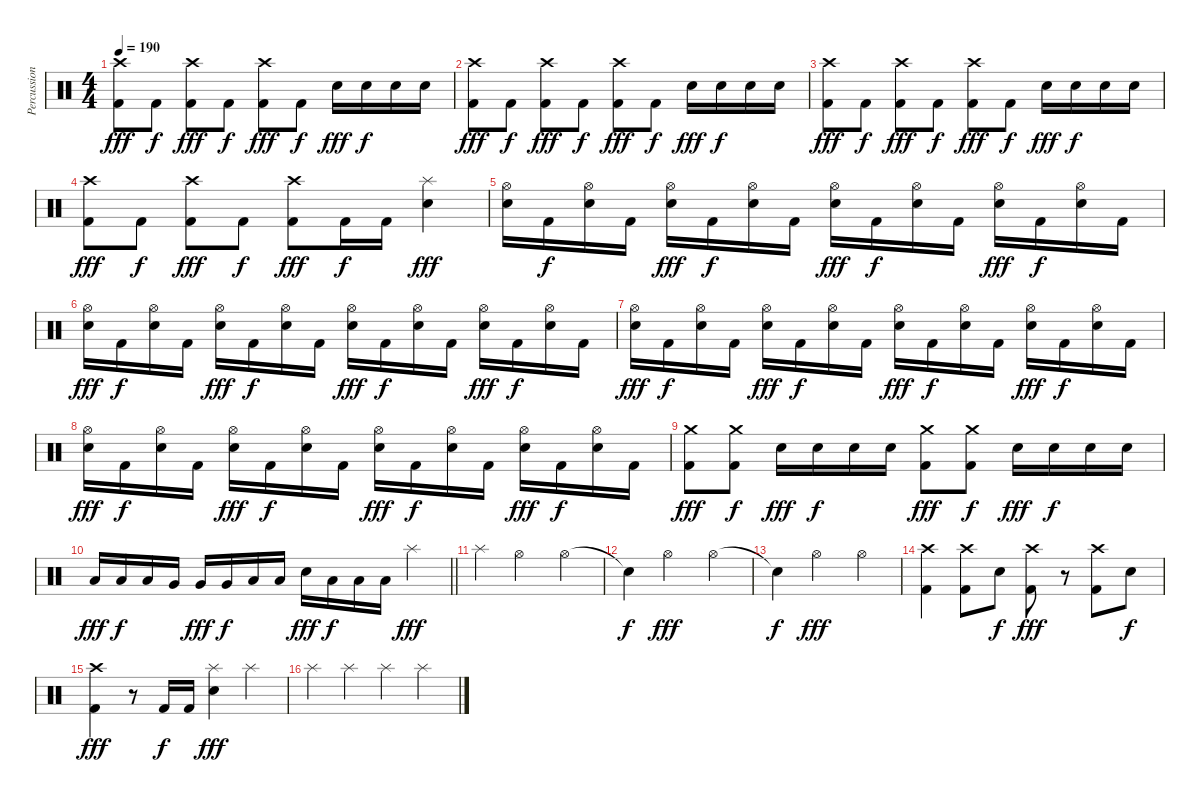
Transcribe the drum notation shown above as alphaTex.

\track ("Percussions" "Percussion") {instrument percussion}
\staff {score}
\articulation defaults
\ts (4 4)
\tempo 190
\clef neutral
\ks c
("Crash high (hit)" "Kick (hit) 2").8{dy fff} "Kick (hit) 2".8{dy f} ("Crash high (hit)" "Kick (hit) 2").8{dy fff} "Kick (hit) 2".8{dy f} ("Crash high (hit)" "Kick (hit) 2").8{dy fff} "Kick (hit) 2".8{dy f} "Snare (hit) 2".16{dy fff} "Snare (hit) 2".16{dy f} "Snare (hit) 2".16 "Snare (hit) 2".16 |
("Crash high (hit)" "Kick (hit) 2").8{dy fff} "Kick (hit) 2".8{dy f} ("Crash high (hit)" "Kick (hit) 2").8{dy fff} "Kick (hit) 2".8{dy f} ("Crash high (hit)" "Kick (hit) 2").8{dy fff} "Kick (hit) 2".8{dy f} "Snare (hit) 2".16{dy fff} "Snare (hit) 2".16{dy f} "Snare (hit) 2".16 "Snare (hit) 2".16 |
("Crash high (hit)" "Kick (hit) 2").8{dy fff} "Kick (hit) 2".8{dy f} ("Crash high (hit)" "Kick (hit) 2").8{dy fff} "Kick (hit) 2".8{dy f} ("Crash high (hit)" "Kick (hit) 2").8{dy fff} "Kick (hit) 2".8{dy f} "Snare (hit) 2".16{dy fff} "Snare (hit) 2".16{dy f} "Snare (hit) 2".16 "Snare (hit) 2".16 |
("Crash high (hit)" "Kick (hit) 2").8{dy fff} "Kick (hit) 2".8{dy f} ("Crash high (hit)" "Kick (hit) 2").8{dy fff} "Kick (hit) 2".8{dy f} ("Crash high (hit)" "Kick (hit) 2").8{dy fff} "Kick (hit) 2".16{dy f} "Kick (hit) 2".16 ("Splash (hit)" "Snare (hit) 2").4{dy fff} |
("Hi-Hat (open)" "Snare (hit) 2").16 "Kick (hit) 2".16{dy f} ("Hi-Hat (open)" "Snare (hit) 2").16 "Kick (hit) 2".16 ("Hi-Hat (open)" "Snare (hit) 2").16{dy fff} "Kick (hit) 2".16{dy f} ("Hi-Hat (open)" "Snare (hit) 2").16 "Kick (hit) 2".16 ("Hi-Hat (open)" "Snare (hit) 2").16{dy fff} "Kick (hit) 2".16{dy f} ("Hi-Hat (open)" "Snare (hit) 2").16 "Kick (hit) 2".16 ("Hi-Hat (open)" "Snare (hit) 2").16{dy fff} "Kick (hit) 2".16{dy f} ("Hi-Hat (open)" "Snare (hit) 2").16 "Kick (hit) 2".16 |
("Hi-Hat (open)" "Snare (hit) 2").16{dy fff} "Kick (hit) 2".16{dy f} ("Hi-Hat (open)" "Snare (hit) 2").16 "Kick (hit) 2".16 ("Hi-Hat (open)" "Snare (hit) 2").16{dy fff} "Kick (hit) 2".16{dy f} ("Hi-Hat (open)" "Snare (hit) 2").16 "Kick (hit) 2".16 ("Hi-Hat (open)" "Snare (hit) 2").16{dy fff} "Kick (hit) 2".16{dy f} ("Hi-Hat (open)" "Snare (hit) 2").16 "Kick (hit) 2".16 ("Hi-Hat (open)" "Snare (hit) 2").16{dy fff} "Kick (hit) 2".16{dy f} ("Hi-Hat (open)" "Snare (hit) 2").16 "Kick (hit) 2".16 |
("Hi-Hat (open)" "Snare (hit) 2").16{dy fff} "Kick (hit) 2".16{dy f} ("Hi-Hat (open)" "Snare (hit) 2").16 "Kick (hit) 2".16 ("Hi-Hat (open)" "Snare (hit) 2").16{dy fff} "Kick (hit) 2".16{dy f} ("Hi-Hat (open)" "Snare (hit) 2").16 "Kick (hit) 2".16 ("Hi-Hat (open)" "Snare (hit) 2").16{dy fff} "Kick (hit) 2".16{dy f} ("Hi-Hat (open)" "Snare (hit) 2").16 "Kick (hit) 2".16 ("Hi-Hat (open)" "Snare (hit) 2").16{dy fff} "Kick (hit) 2".16{dy f} ("Hi-Hat (open)" "Snare (hit) 2").16 "Kick (hit) 2".16 |
("Hi-Hat (open)" "Snare (hit) 2").16{dy fff} "Kick (hit) 2".16{dy f} ("Hi-Hat (open)" "Snare (hit) 2").16 "Kick (hit) 2".16 ("Hi-Hat (open)" "Snare (hit) 2").16{dy fff} "Kick (hit) 2".16{dy f} ("Hi-Hat (open)" "Snare (hit) 2").16 "Kick (hit) 2".16 ("Hi-Hat (open)" "Snare (hit) 2").16{dy fff} "Kick (hit) 2".16{dy f} ("Hi-Hat (open)" "Snare (hit) 2").16 "Kick (hit) 2".16 ("Hi-Hat (open)" "Snare (hit) 2").16{dy fff} "Kick (hit) 2".16{dy f} ("Hi-Hat (open)" "Snare (hit) 2").16 "Kick (hit) 2".16 |
("Crash medium (hit)" "Kick (hit) 2").8{dy fff} ("Crash medium (hit)" "Kick (hit) 2").8{dy f} "Snare (hit) 2".16{dy fff} "Snare (hit) 2".16{dy f} "Snare (hit) 2".16 "Snare (hit) 2".16 ("Crash medium (hit)" "Kick (hit) 2").8{dy fff} ("Crash medium (hit)" "Kick (hit) 2").8{dy f} "Snare (hit) 2".16{dy fff} "Snare (hit) 2".16{dy f} "Snare (hit) 2".16 "Snare (hit) 2".16 |
\barLineRight lightlight "Low Tom (hit)".16{dy fff} "Low Tom (hit)".16{dy f} "Low Tom (hit)".16 "Very Low Tom (hit)".16 "Very Low Tom (hit)".16{dy fff} "Very Low Tom (hit)".16{dy f} "Low Floor Tom (hit)".16 "Low Floor Tom (hit)".16 "Snare (hit) 2".16{dy fff} "Low Tom (hit)".16{dy f} "Low Tom (hit)".16 "Low Tom (hit)".16 "Splash (hit)".4{dy fff}
|
"Splash (hit)".4 "Hi-Hat (open)".2 "Hi-Hat (open)".4 |
"Snare (hit)"{t}.4{dy f} "Hi-Hat (open)".2{dy fff} "Hi-Hat (open)".4 |
"Snare (hit)"{t}.4{dy f} "Hi-Hat (open)".2{dy fff} "Hi-Hat (open)".4 |
("Crash high (hit)" "Kick (hit) 2").4 ("Crash high (hit)" "Kick (hit) 2").8 "Snare (hit) 2".8{dy f} ("Crash high (hit)" "Kick (hit) 2").8{dy fff} r.8 ("Crash high (hit)" "Kick (hit) 2").8 "Snare (hit) 2".8{dy f} |
("Crash high (hit)" "Kick (hit) 2").4{dy fff} r.8 "Kick (hit) 2".16{dy f} "Kick (hit) 2".16 ("Splash (hit)" "Snare (hit) 2").4{dy fff} "Splash (hit)".4 |
"Splash (hit)".4 "Splash (hit)".4 "Splash (hit)".4 "Splash (hit)".4
